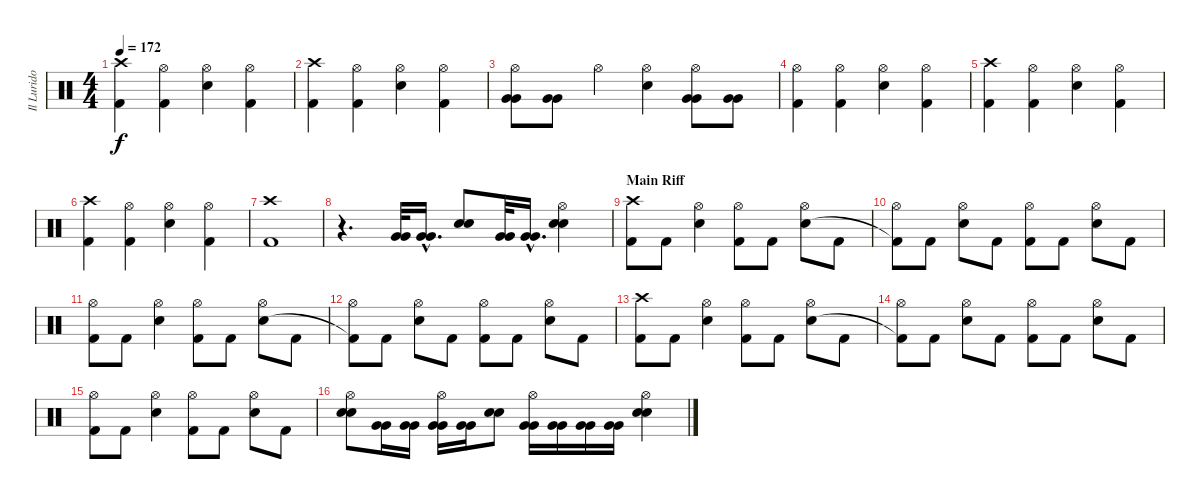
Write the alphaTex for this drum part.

\track ("Il Lurido Cavernicolo (Drums)" "Il Lurido ") {instrument percussion}
\staff {score}
\articulation defaults
\ts (4 4)
\tempo 172
\clef neutral
\ks c
("Crash high (hit)" "Kick (hit) 2").4{dy f} ("Hi-Hat (open)" "Kick (hit) 2").4 ("Hi-Hat (open)" "Electric Snare (hit)").4 ("Hi-Hat (open)" "Kick (hit) 2").4 |
("Crash high (hit)" "Kick (hit) 2").4 ("Hi-Hat (open)" "Kick (hit) 2").4 ("Hi-Hat (open)" "Electric Snare (hit)").4 ("Hi-Hat (open)" "Kick (hit) 2").4 |
("Hi-Hat (open)" "Very Low Tom (hit)" "Very Low Tom (hit)").8 ("Very Low Tom (hit)" "Very Low Tom (hit)").8 "Hi-Hat (open)".4 ("Hi-Hat (open)" "Electric Snare (hit)").4 ("Hi-Hat (open)" "Very Low Tom (hit)" "Very Low Tom (hit)").8 ("Very Low Tom (hit)" "Very Low Tom (hit)").8 |
("Hi-Hat (open)" "Kick (hit) 2").4 ("Hi-Hat (open)" "Kick (hit) 2").4 ("Hi-Hat (open)" "Electric Snare (hit)").4 ("Hi-Hat (open)" "Kick (hit) 2").4 |
("Crash high (hit)" "Kick (hit) 2").4 ("Hi-Hat (open)" "Kick (hit) 2").4 ("Hi-Hat (open)" "Electric Snare (hit)").4 ("Hi-Hat (open)" "Kick (hit) 2").4 |
("Crash high (hit)" "Kick (hit) 2").4 ("Hi-Hat (open)" "Kick (hit) 2").4 ("Hi-Hat (open)" "Electric Snare (hit)").4 ("Hi-Hat (open)" "Kick (hit) 2").4 |
("Crash high (hit)" "Kick (hit) 2").1 |
r.4{d} ("Very Low Tom (hit)" "Very Low Tom (hit)").32 ("Very Low Tom (hit)"{hac} "Very Low Tom (hit)"{hac}).16{d} ("Electric Snare (hit)" "Electric Snare (hit)").8 ("Very Low Tom (hit)" "Very Low Tom (hit)").32 ("Very Low Tom (hit)"{hac} "Very Low Tom (hit)"{hac}).16{d} ("Hi-Hat (open)" "Electric Snare (hit)" "Electric Snare (hit)").4 |
\section ("" "Main Riff")
("Crash high (hit)" "Kick (hit) 2").8 "Kick (hit) 2".8 ("Hi-Hat (open)" "Electric Snare (hit)").4 ("Hi-Hat (open)" "Kick (hit) 2").8 "Kick (hit) 2".8 ("Hi-Hat (open)" "Electric Snare (hit)").8 "Kick (hit) 2".8 |
("Hi-Hat (open)" "Kick (hit) 2"{t}).8 "Kick (hit) 2".8 ("Hi-Hat (open)" "Electric Snare (hit)").8 "Kick (hit) 2".8 ("Hi-Hat (open)" "Kick (hit) 2").8 "Kick (hit) 2".8 ("Hi-Hat (open)" "Electric Snare (hit)").8 "Kick (hit) 2".8 |
("Hi-Hat (open)" "Kick (hit) 2").8 "Kick (hit) 2".8 ("Hi-Hat (open)" "Electric Snare (hit)").4 ("Hi-Hat (open)" "Kick (hit) 2").8 "Kick (hit) 2".8 ("Hi-Hat (open)" "Electric Snare (hit)").8 "Kick (hit) 2".8 |
("Hi-Hat (open)" "Kick (hit) 2"{t}).8 "Kick (hit) 2".8 ("Hi-Hat (open)" "Electric Snare (hit)").8 "Kick (hit) 2".8 ("Hi-Hat (open)" "Kick (hit) 2").8 "Kick (hit) 2".8 ("Hi-Hat (open)" "Electric Snare (hit)").8 "Kick (hit) 2".8 |
("Crash high (hit)" "Kick (hit) 2").8 "Kick (hit) 2".8 ("Hi-Hat (open)" "Electric Snare (hit)").4 ("Hi-Hat (open)" "Kick (hit) 2").8 "Kick (hit) 2".8 ("Hi-Hat (open)" "Electric Snare (hit)").8 "Kick (hit) 2".8 |
("Hi-Hat (open)" "Kick (hit) 2"{t}).8 "Kick (hit) 2".8 ("Hi-Hat (open)" "Electric Snare (hit)").8 "Kick (hit) 2".8 ("Hi-Hat (open)" "Kick (hit) 2").8 "Kick (hit) 2".8 ("Hi-Hat (open)" "Electric Snare (hit)").8 "Kick (hit) 2".8 |
("Hi-Hat (open)" "Kick (hit) 2").8 "Kick (hit) 2".8 ("Hi-Hat (open)" "Electric Snare (hit)").4 ("Hi-Hat (open)" "Kick (hit) 2").8 "Kick (hit) 2".8 ("Hi-Hat (open)" "Electric Snare (hit)").8 "Kick (hit) 2".8 |
("Hi-Hat (open)" "Electric Snare (hit)" "Electric Snare (hit)").8 ("Very Low Tom (hit)" "Very Low Tom (hit)").16 ("Very Low Tom (hit)" "Very Low Tom (hit)").16 ("Hi-Hat (open)" "Very Low Tom (hit)" "Very Low Tom (hit)").16 ("Very Low Tom (hit)" "Very Low Tom (hit)").16 ("Electric Snare (hit)" "Electric Snare (hit)").8 ("Hi-Hat (open)" "Very Low Tom (hit)" "Very Low Tom (hit)").16 ("Very Low Tom (hit)" "Very Low Tom (hit)").16 ("Very Low Tom (hit)" "Very Low Tom (hit)").16 ("Very Low Tom (hit)" "Very Low Tom (hit)").16 ("Hi-Hat (open)" "Electric Snare (hit)" "Electric Snare (hit)").4
